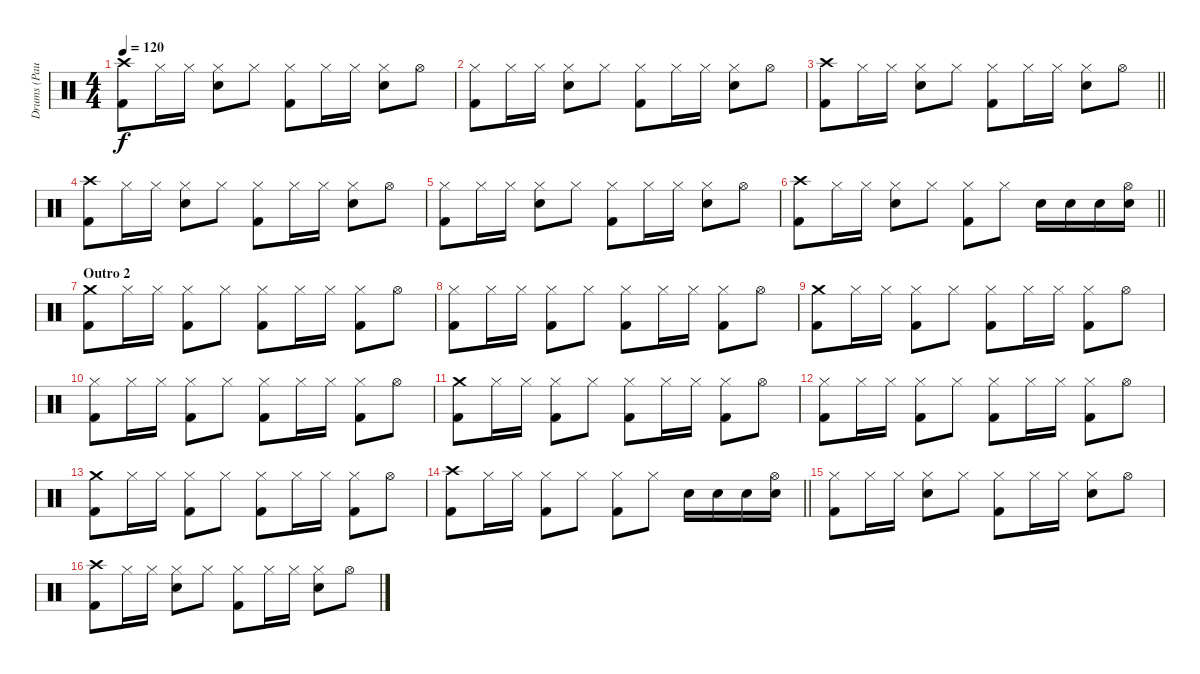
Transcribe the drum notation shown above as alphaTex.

\track ("Drums (Paul Thompson)" "Drums (Pau") {instrument percussion}
\staff {score}
\articulation defaults
\ts (4 4)
\tempo 120
\clef neutral
\ks c
("Crash high (hit)" "Kick (hit) 2").8{dy f} "Hi-Hat (closed)".16 "Hi-Hat (closed)".16 ("Hi-Hat (closed)" "Snare (hit) 2").8 "Hi-Hat (closed)".8 ("Hi-Hat (closed)" "Kick (hit) 2").8 "Hi-Hat (closed)".16 "Hi-Hat (closed)".16 ("Hi-Hat (closed)" "Snare (hit) 2").8 "Hi-Hat (open)".8 |
("Hi-Hat (closed)" "Kick (hit) 2").8 "Hi-Hat (closed)".16 "Hi-Hat (closed)".16 ("Hi-Hat (closed)" "Snare (hit) 2").8 "Hi-Hat (closed)".8 ("Hi-Hat (closed)" "Kick (hit) 2").8 "Hi-Hat (closed)".16 "Hi-Hat (closed)".16 ("Hi-Hat (closed)" "Snare (hit) 2").8 "Hi-Hat (open)".8 |
\barLineRight lightlight
("Crash high (hit)" "Kick (hit) 2").8 "Hi-Hat (closed)".16 "Hi-Hat (closed)".16 ("Hi-Hat (closed)" "Snare (hit) 2").8 "Hi-Hat (closed)".8 ("Hi-Hat (closed)" "Kick (hit) 2").8 "Hi-Hat (closed)".16 "Hi-Hat (closed)".16 ("Hi-Hat (closed)" "Snare (hit) 2").8 "Hi-Hat (open)".8 |
("Crash high (hit)" "Kick (hit) 2").8 "Hi-Hat (closed)".16 "Hi-Hat (closed)".16 ("Hi-Hat (closed)" "Snare (hit) 2").8 "Hi-Hat (closed)".8 ("Hi-Hat (closed)" "Kick (hit) 2").8 "Hi-Hat (closed)".16 "Hi-Hat (closed)".16 ("Hi-Hat (closed)" "Snare (hit) 2").8 "Hi-Hat (open)".8 |
("Hi-Hat (closed)" "Kick (hit) 2").8 "Hi-Hat (closed)".16 "Hi-Hat (closed)".16 ("Hi-Hat (closed)" "Snare (hit) 2").8 "Hi-Hat (closed)".8 ("Hi-Hat (closed)" "Kick (hit) 2").8 "Hi-Hat (closed)".16 "Hi-Hat (closed)".16 ("Hi-Hat (closed)" "Snare (hit) 2").8 "Hi-Hat (open)".8 |
\barLineRight lightlight
("Crash high (hit)" "Kick (hit) 2").8 "Hi-Hat (closed)".16 "Hi-Hat (closed)".16 ("Hi-Hat (closed)" "Snare (hit) 2").8 "Hi-Hat (closed)".8 ("Hi-Hat (closed)" "Kick (hit) 2").8 "Hi-Hat (closed)".8 "Snare (hit) 2".16 "Snare (hit) 2".16 "Snare (hit) 2".16 ("Hi-Hat (open)" "Snare (hit) 2").16 |
\section ("" "Outro 2")
("Crash medium (hit)" "Kick (hit) 2").8 "Hi-Hat (closed)".16 "Hi-Hat (closed)".16 ("Hi-Hat (closed)" "Kick (hit) 2").8 "Hi-Hat (closed)".8 ("Hi-Hat (closed)" "Kick (hit) 2").8 "Hi-Hat (closed)".16 "Hi-Hat (closed)".16 ("Hi-Hat (closed)" "Kick (hit) 2").8 "Hi-Hat (open)".8 |
("Hi-Hat (closed)" "Kick (hit) 2").8 "Hi-Hat (closed)".16 "Hi-Hat (closed)".16 ("Hi-Hat (closed)" "Kick (hit) 2").8 "Hi-Hat (closed)".8 ("Hi-Hat (closed)" "Kick (hit) 2").8 "Hi-Hat (closed)".16 "Hi-Hat (closed)".16 ("Hi-Hat (closed)" "Kick (hit) 2").8 "Hi-Hat (open)".8 |
("Crash medium (hit)" "Kick (hit) 2").8 "Hi-Hat (closed)".16 "Hi-Hat (closed)".16 ("Hi-Hat (closed)" "Kick (hit) 2").8 "Hi-Hat (closed)".8 ("Hi-Hat (closed)" "Kick (hit) 2").8 "Hi-Hat (closed)".16 "Hi-Hat (closed)".16 ("Hi-Hat (closed)" "Kick (hit) 2").8 "Hi-Hat (open)".8 |
("Hi-Hat (closed)" "Kick (hit) 2").8 "Hi-Hat (closed)".16 "Hi-Hat (closed)".16 ("Hi-Hat (closed)" "Kick (hit) 2").8 "Hi-Hat (closed)".8 ("Hi-Hat (closed)" "Kick (hit) 2").8 "Hi-Hat (closed)".16 "Hi-Hat (closed)".16 ("Hi-Hat (closed)" "Kick (hit) 2").8 "Hi-Hat (open)".8 |
("Crash medium (hit)" "Kick (hit) 2").8 "Hi-Hat (closed)".16 "Hi-Hat (closed)".16 ("Hi-Hat (closed)" "Kick (hit) 2").8 "Hi-Hat (closed)".8 ("Hi-Hat (closed)" "Kick (hit) 2").8 "Hi-Hat (closed)".16 "Hi-Hat (closed)".16 ("Hi-Hat (closed)" "Kick (hit) 2").8 "Hi-Hat (open)".8 |
("Hi-Hat (closed)" "Kick (hit) 2").8 "Hi-Hat (closed)".16 "Hi-Hat (closed)".16 ("Hi-Hat (closed)" "Kick (hit) 2").8 "Hi-Hat (closed)".8 ("Hi-Hat (closed)" "Kick (hit) 2").8 "Hi-Hat (closed)".16 "Hi-Hat (closed)".16 ("Hi-Hat (closed)" "Kick (hit) 2").8 "Hi-Hat (open)".8 |
("Crash medium (hit)" "Kick (hit) 2").8 "Hi-Hat (closed)".16 "Hi-Hat (closed)".16 ("Hi-Hat (closed)" "Kick (hit) 2").8 "Hi-Hat (closed)".8 ("Hi-Hat (closed)" "Kick (hit) 2").8 "Hi-Hat (closed)".16 "Hi-Hat (closed)".16 ("Hi-Hat (closed)" "Kick (hit) 2").8 "Hi-Hat (open)".8 |
\barLineRight lightlight
("Crash high (hit)" "Kick (hit) 2").8 "Hi-Hat (closed)".16 "Hi-Hat (closed)".16 ("Hi-Hat (closed)" "Kick (hit) 2").8 "Hi-Hat (closed)".8 ("Hi-Hat (closed)" "Kick (hit) 2").8 "Hi-Hat (closed)".8 "Snare (hit) 2".16 "Snare (hit) 2".16 "Snare (hit) 2".16 ("Hi-Hat (open)" "Snare (hit) 2").16 |
("Hi-Hat (closed)" "Kick (hit) 2").8 "Hi-Hat (closed)".16 "Hi-Hat (closed)".16 ("Hi-Hat (closed)" "Snare (hit) 2").8 "Hi-Hat (closed)".8 ("Hi-Hat (closed)" "Kick (hit) 2").8 "Hi-Hat (closed)".16 "Hi-Hat (closed)".16 ("Hi-Hat (closed)" "Snare (hit) 2").8 "Hi-Hat (open)".8 |
("Crash high (hit)" "Kick (hit) 2").8 "Hi-Hat (closed)".16 "Hi-Hat (closed)".16 ("Hi-Hat (closed)" "Snare (hit) 2").8 "Hi-Hat (closed)".8 ("Hi-Hat (closed)" "Kick (hit) 2").8 "Hi-Hat (closed)".16 "Hi-Hat (closed)".16 ("Hi-Hat (closed)" "Snare (hit) 2").8 "Hi-Hat (open)".8
